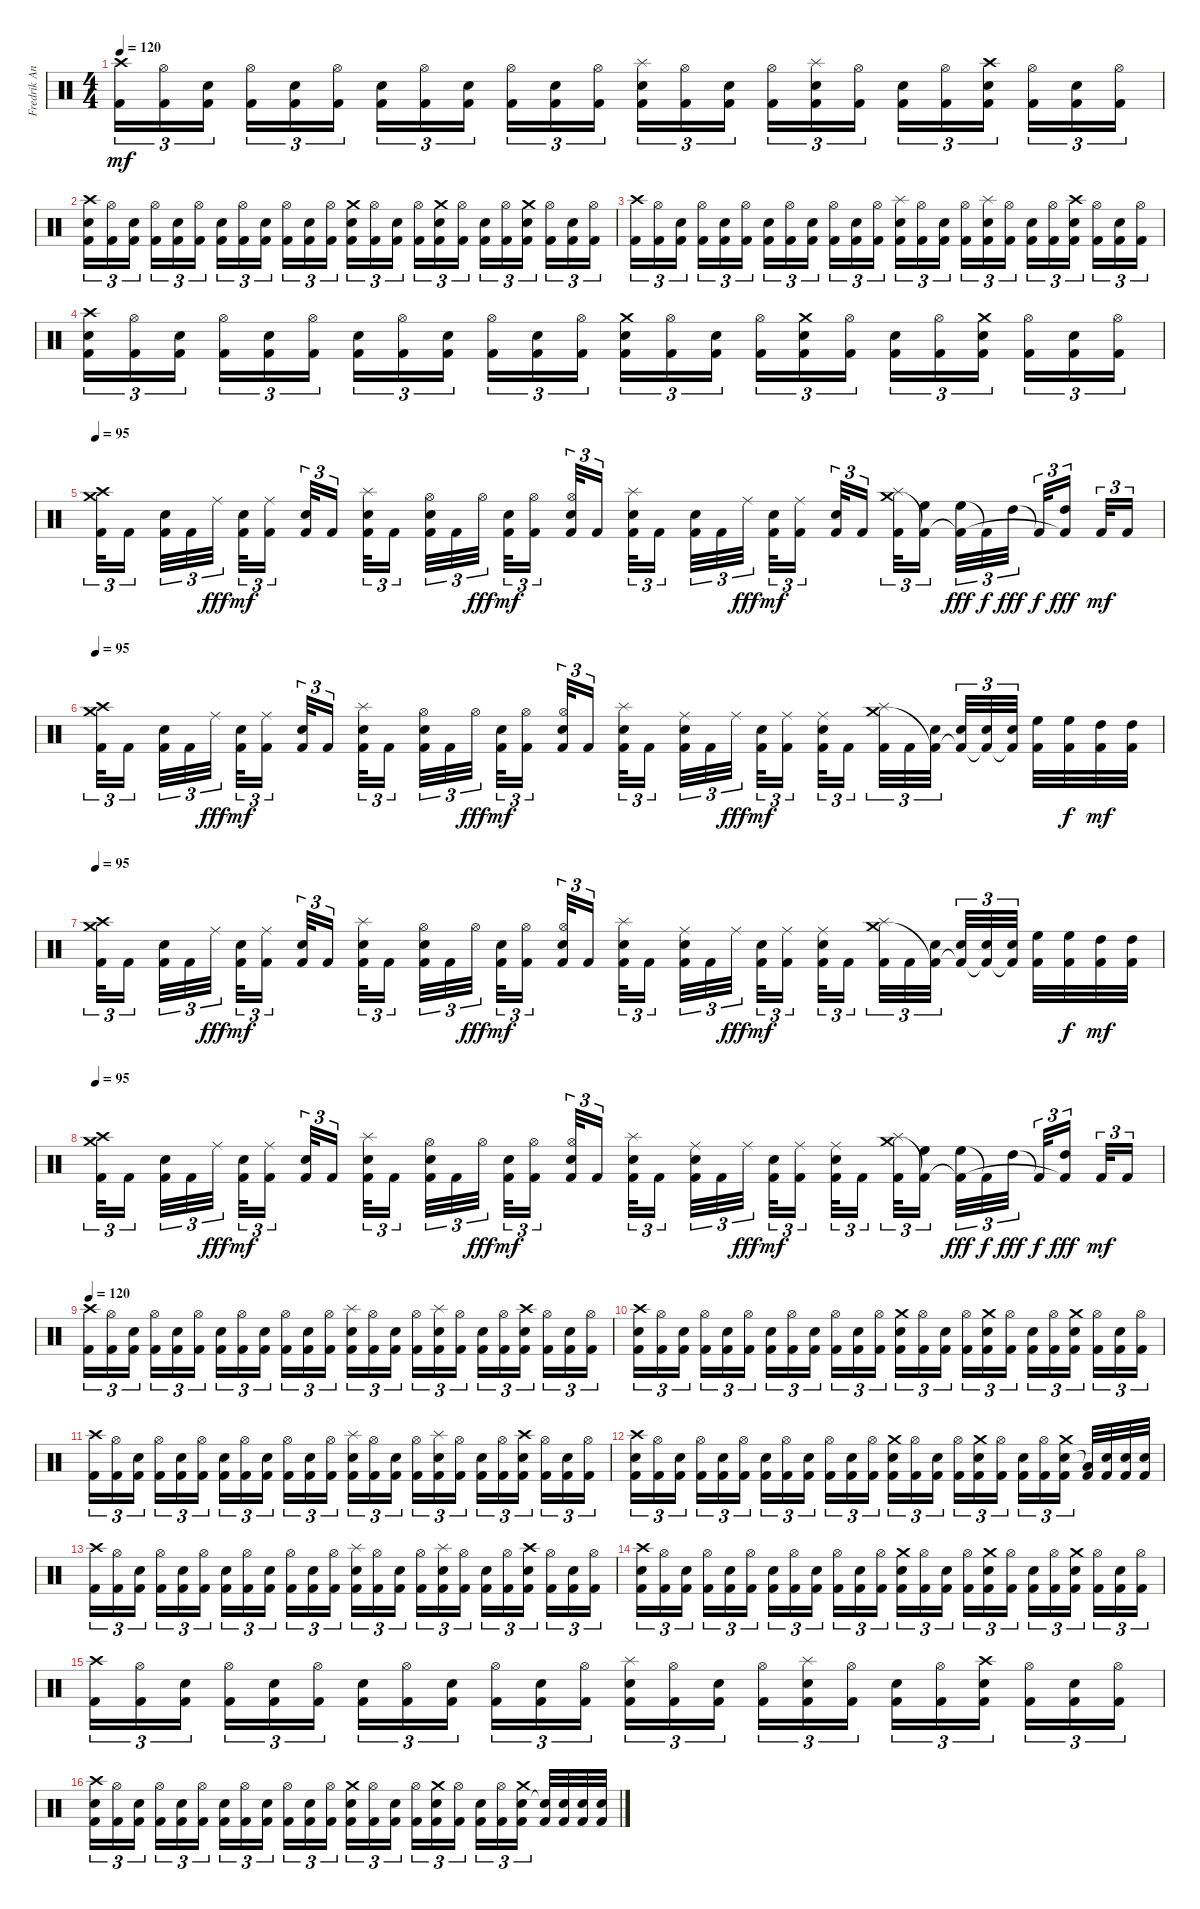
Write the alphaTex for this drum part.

\track ("Fredrik Andersson" "Fredrik An") {instrument percussion}
\staff {score}
\articulation defaults
\ts (4 4)
\tempo 120
\clef neutral
\ks c
("Crash high (hit)" "Kick (hit) 2").16{tu (3 2) dy mf} ("Hi-Hat (open)" "Kick (hit) 2").16{tu (3 2)} ("Snare (hit) 2" "Kick (hit) 2").16{tu (3 2) beam splitsecondary} ("Hi-Hat (open)" "Kick (hit) 2").16{tu (3 2)} ("Snare (hit) 2" "Kick (hit) 2").16{tu (3 2)} ("Hi-Hat (open)" "Kick (hit) 2").16{tu (3 2)} ("Snare (hit) 2" "Kick (hit) 2").16{tu (3 2)} ("Hi-Hat (open)" "Kick (hit) 2").16{tu (3 2)} ("Snare (hit) 2" "Kick (hit) 2").16{tu (3 2) beam splitsecondary} ("Hi-Hat (open)" "Kick (hit) 2").16{tu (3 2)} ("Snare (hit) 2" "Kick (hit) 2").16{tu (3 2)} ("Hi-Hat (open)" "Kick (hit) 2").16{tu (3 2)} ("Snare (hit) 2" "Splash (hit)" "Kick (hit) 2").16{tu (3 2)} ("Hi-Hat (open)" "Kick (hit) 2").16{tu (3 2)} ("Snare (hit) 2" "Kick (hit) 2").16{tu (3 2) beam splitsecondary} ("Hi-Hat (open)" "Kick (hit) 2").16{tu (3 2)} ("Snare (hit) 2" "Splash (hit)" "Kick (hit) 2").16{tu (3 2)} ("Hi-Hat (open)" "Kick (hit) 2").16{tu (3 2)} ("Snare (hit) 2" "Kick (hit) 2").16{tu (3 2)} ("Hi-Hat (open)" "Kick (hit) 2").16{tu (3 2)} ("Snare (hit) 2" "Crash high (hit)" "Kick (hit) 2").16{tu (3 2) beam splitsecondary} ("Hi-Hat (open)" "Kick (hit) 2").16{tu (3 2)} ("Snare (hit) 2" "Kick (hit) 2").16{tu (3 2)} ("Hi-Hat (open)" "Kick (hit) 2").16{tu (3 2)} |
("Snare (hit) 2" "Crash high (hit)" "Kick (hit) 2").16{tu (3 2)} ("Hi-Hat (open)" "Kick (hit) 2").16{tu (3 2)} ("Snare (hit) 2" "Kick (hit) 2").16{tu (3 2) beam splitsecondary} ("Hi-Hat (open)" "Kick (hit) 2").16{tu (3 2)} ("Snare (hit) 2" "Kick (hit) 2").16{tu (3 2)} ("Hi-Hat (open)" "Kick (hit) 2").16{tu (3 2)} ("Snare (hit) 2" "Kick (hit) 2").16{tu (3 2)} ("Hi-Hat (open)" "Kick (hit) 2").16{tu (3 2)} ("Snare (hit) 2" "Kick (hit) 2").16{tu (3 2) beam splitsecondary} ("Hi-Hat (open)" "Kick (hit) 2").16{tu (3 2)} ("Snare (hit) 2" "Kick (hit) 2").16{tu (3 2)} ("Hi-Hat (open)" "Kick (hit) 2").16{tu (3 2)} ("Snare (hit) 2" "Crash medium (hit)" "Kick (hit) 2").16{tu (3 2)} ("Hi-Hat (open)" "Kick (hit) 2").16{tu (3 2)} ("Snare (hit) 2" "Kick (hit) 2").16{tu (3 2) beam splitsecondary} ("Hi-Hat (open)" "Kick (hit) 2").16{tu (3 2)} ("Snare (hit) 2" "Crash medium (hit)" "Kick (hit) 2").16{tu (3 2)} ("Hi-Hat (open)" "Kick (hit) 2").16{tu (3 2)} ("Snare (hit) 2" "Kick (hit) 2").16{tu (3 2)} ("Hi-Hat (open)" "Kick (hit) 2").16{tu (3 2)} ("Snare (hit) 2" "Crash medium (hit)" "Kick (hit) 2").16{tu (3 2) beam splitsecondary} ("Hi-Hat (open)" "Kick (hit) 2").16{tu (3 2)} ("Snare (hit) 2" "Kick (hit) 2").16{tu (3 2)} ("Hi-Hat (open)" "Kick (hit) 2").16{tu (3 2)} |
("Crash high (hit)" "Kick (hit) 2").16{tu (3 2)} ("Hi-Hat (open)" "Kick (hit) 2").16{tu (3 2)} ("Snare (hit) 2" "Kick (hit) 2").16{tu (3 2) beam splitsecondary} ("Hi-Hat (open)" "Kick (hit) 2").16{tu (3 2)} ("Snare (hit) 2" "Kick (hit) 2").16{tu (3 2)} ("Hi-Hat (open)" "Kick (hit) 2").16{tu (3 2)} ("Snare (hit) 2" "Kick (hit) 2").16{tu (3 2)} ("Hi-Hat (open)" "Kick (hit) 2").16{tu (3 2)} ("Snare (hit) 2" "Kick (hit) 2").16{tu (3 2) beam splitsecondary} ("Hi-Hat (open)" "Kick (hit) 2").16{tu (3 2)} ("Snare (hit) 2" "Kick (hit) 2").16{tu (3 2)} ("Hi-Hat (open)" "Kick (hit) 2").16{tu (3 2)} ("Snare (hit) 2" "Splash (hit)" "Kick (hit) 2").16{tu (3 2)} ("Hi-Hat (open)" "Kick (hit) 2").16{tu (3 2)} ("Snare (hit) 2" "Kick (hit) 2").16{tu (3 2) beam splitsecondary} ("Hi-Hat (open)" "Kick (hit) 2").16{tu (3 2)} ("Snare (hit) 2" "Splash (hit)" "Kick (hit) 2").16{tu (3 2)} ("Hi-Hat (open)" "Kick (hit) 2").16{tu (3 2)} ("Snare (hit) 2" "Kick (hit) 2").16{tu (3 2)} ("Hi-Hat (open)" "Kick (hit) 2").16{tu (3 2)} ("Snare (hit) 2" "Crash high (hit)" "Kick (hit) 2").16{tu (3 2) beam splitsecondary} ("Hi-Hat (open)" "Kick (hit) 2").16{tu (3 2)} ("Snare (hit) 2" "Kick (hit) 2").16{tu (3 2)} ("Hi-Hat (open)" "Kick (hit) 2").16{tu (3 2)} |
("Snare (hit) 2" "Crash high (hit)" "Kick (hit) 2").16{tu (3 2)} ("Hi-Hat (open)" "Kick (hit) 2").16{tu (3 2)} ("Snare (hit) 2" "Kick (hit) 2").16{tu (3 2) beam splitsecondary} ("Hi-Hat (open)" "Kick (hit) 2").16{tu (3 2)} ("Snare (hit) 2" "Kick (hit) 2").16{tu (3 2)} ("Hi-Hat (open)" "Kick (hit) 2").16{tu (3 2)} ("Snare (hit) 2" "Kick (hit) 2").16{tu (3 2)} ("Hi-Hat (open)" "Kick (hit) 2").16{tu (3 2)} ("Snare (hit) 2" "Kick (hit) 2").16{tu (3 2) beam splitsecondary} ("Hi-Hat (open)" "Kick (hit) 2").16{tu (3 2)} ("Snare (hit) 2" "Kick (hit) 2").16{tu (3 2)} ("Hi-Hat (open)" "Kick (hit) 2").16{tu (3 2)} ("Snare (hit) 2" "Crash medium (hit)" "Kick (hit) 2").16{tu (3 2)} ("Hi-Hat (open)" "Kick (hit) 2").16{tu (3 2)} ("Snare (hit) 2" "Kick (hit) 2").16{tu (3 2) beam splitsecondary} ("Hi-Hat (open)" "Kick (hit) 2").16{tu (3 2)} ("Snare (hit) 2" "Crash medium (hit)" "Kick (hit) 2").16{tu (3 2)} ("Hi-Hat (open)" "Kick (hit) 2").16{tu (3 2)} ("Snare (hit) 2" "Kick (hit) 2").16{tu (3 2)} ("Hi-Hat (open)" "Kick (hit) 2").16{tu (3 2)} ("Snare (hit) 2" "Crash medium (hit)" "Kick (hit) 2").16{tu (3 2) beam splitsecondary} ("Hi-Hat (open)" "Kick (hit) 2").16{tu (3 2)} ("Snare (hit) 2" "Kick (hit) 2").16{tu (3 2)} ("Hi-Hat (open)" "Kick (hit) 2").16{tu (3 2)} |
\tempo 95
("Crash high (hit)" "Crash medium (hit)" "Kick (hit) 2").32{tu (3 2)} "Kick (hit) 2".16{tu (3 2) beam splitsecondary} ("Snare (hit) 2" "Kick (hit) 2").32{tu (3 2)} "Kick (hit) 2".32{tu (3 2)} "Ride (middle)".32{tu (3 2) dy fff beam splitsecondary} ("Snare (hit) 2" "Kick (hit) 2").32{tu (3 2) dy mf} ("Ride (middle)" "Kick (hit) 2").16{tu (3 2) beam splitsecondary} ("Snare (hit) 2" "Kick (hit) 2").32{tu (3 2)} "Kick (hit) 2".16{tu (3 2)} ("Snare (hit) 2" "Splash (hit)" "Kick (hit) 2").32{tu (3 2)} "Kick (hit) 2".16{tu (3 2) beam splitsecondary} ("Snare (hit) 2" "Hi-Hat (open)" "Kick (hit) 2").32{tu (3 2)} "Kick (hit) 2".32{tu (3 2)} "Hi-Hat (open)".32{tu (3 2) dy fff beam splitsecondary} ("Snare (hit) 2" "Kick (hit) 2").32{tu (3 2) dy mf} ("Hi-Hat (open)" "Kick (hit) 2").16{tu (3 2) beam splitsecondary} ("Snare (hit) 2" "Hi-Hat (open)" "Kick (hit) 2").32{tu (3 2)} "Kick (hit) 2".16{tu (3 2)} ("Snare (hit) 2" "Splash (hit)" "Kick (hit) 2").32{tu (3 2)} "Kick (hit) 2".16{tu (3 2) beam splitsecondary} ("Snare (hit) 2" "Kick (hit) 2").32{tu (3 2)} "Kick (hit) 2".32{tu (3 2)} "Ride (middle)".32{tu (3 2) dy fff beam splitsecondary} ("Snare (hit) 2" "Kick (hit) 2").32{tu (3 2) dy mf} ("Ride (middle)" "Kick (hit) 2").16{tu (3 2) beam splitsecondary} ("Snare (hit) 2" "Kick (hit) 2").32{tu (3 2)} "Kick (hit) 2".16{tu (3 2)} ("Splash (hit)" "Crash medium (hit)" "Kick (hit) 2").32{tu (3 2)} ("High Floor Tom (hit)" "Kick (hit) 2"{t}).16{tu (3 2) beam splitsecondary} ("High Floor Tom (hit)" "Kick (hit) 2"{t}).32{tu (3 2) dy fff} "Kick (hit) 2"{t}.32{tu (3 2) dy f} "High Tom (hit)".32{tu (3 2) dy fff beam splitsecondary} "Kick (hit) 2"{t}.32{tu (3 2) dy f} ("High Tom (hit)" "Kick (hit) 2"{t}).16{tu (3 2) dy fff beam splitsecondary} "Kick (hit) 2".32{tu (3 2) dy mf} "Kick (hit) 2".16{tu (3 2)} |
\tempo 95
("Crash high (hit)" "Crash medium (hit)" "Kick (hit) 2").32{tu (3 2)} "Kick (hit) 2".16{tu (3 2) beam splitsecondary} ("Snare (hit) 2" "Kick (hit) 2").32{tu (3 2)} "Kick (hit) 2".32{tu (3 2)} "Ride (middle)".32{tu (3 2) dy fff beam splitsecondary} ("Snare (hit) 2" "Kick (hit) 2").32{tu (3 2) dy mf} ("Ride (middle)" "Kick (hit) 2").16{tu (3 2) beam splitsecondary} ("Snare (hit) 2" "Kick (hit) 2").32{tu (3 2)} "Kick (hit) 2".16{tu (3 2)} ("Snare (hit) 2" "Splash (hit)" "Kick (hit) 2").32{tu (3 2)} "Kick (hit) 2".16{tu (3 2) beam splitsecondary} ("Snare (hit) 2" "Hi-Hat (open)" "Kick (hit) 2").32{tu (3 2)} "Kick (hit) 2".32{tu (3 2)} "Hi-Hat (open)".32{tu (3 2) dy fff beam splitsecondary} ("Snare (hit) 2" "Kick (hit) 2").32{tu (3 2) dy mf} ("Hi-Hat (open)" "Kick (hit) 2").16{tu (3 2) beam splitsecondary} ("Snare (hit) 2" "Hi-Hat (open)" "Kick (hit) 2").32{tu (3 2)} "Kick (hit) 2".16{tu (3 2)} ("Snare (hit) 2" "Splash (hit)" "Kick (hit) 2").32{tu (3 2)} "Kick (hit) 2".16{tu (3 2) beam splitsecondary} ("Snare (hit) 2" "Ride (middle)" "Kick (hit) 2").32{tu (3 2)} "Kick (hit) 2".32{tu (3 2)} "Ride (middle)".32{tu (3 2) dy fff beam splitsecondary} ("Snare (hit) 2" "Kick (hit) 2").32{tu (3 2) dy mf} ("Ride (middle)" "Kick (hit) 2").16{tu (3 2) beam splitsecondary} ("Snare (hit) 2" "Ride (middle)" "Kick (hit) 2").32{tu (3 2)} "Kick (hit) 2".16{tu (3 2)} ("Splash (hit)" "Crash medium (hit)" "Kick (hit) 2").32{tu (3 2)} "Kick (hit) 2".32{tu (3 2)} ("Snare (hit) 2" "Kick (hit) 2"{t}).32{tu (3 2) beam splitsecondary} ("Snare (hit) 2" "Kick (hit) 2"{t}).32{tu (3 2)} ("Snare (hit) 2" "Kick (hit) 2"{t}).32{tu (3 2)} ("Snare (hit) 2" "Kick (hit) 2"{t}).32{tu (3 2) beam splitsecondary} ("High Floor Tom (hit)" "Kick (hit) 2").32 ("High Floor Tom (hit)" "Kick (hit) 2").32{dy f} ("High Tom (hit)" "Kick (hit) 2").32{dy mf} ("High Tom (hit)" "Kick (hit) 2").32 |
\tempo 95
("Crash high (hit)" "Crash medium (hit)" "Kick (hit) 2").32{tu (3 2)} "Kick (hit) 2".16{tu (3 2) beam splitsecondary} ("Snare (hit) 2" "Kick (hit) 2").32{tu (3 2)} "Kick (hit) 2".32{tu (3 2)} "Ride (middle)".32{tu (3 2) dy fff beam splitsecondary} ("Snare (hit) 2" "Kick (hit) 2").32{tu (3 2) dy mf} ("Ride (middle)" "Kick (hit) 2").16{tu (3 2) beam splitsecondary} ("Snare (hit) 2" "Kick (hit) 2").32{tu (3 2)} "Kick (hit) 2".16{tu (3 2)} ("Snare (hit) 2" "Splash (hit)" "Kick (hit) 2").32{tu (3 2)} "Kick (hit) 2".16{tu (3 2) beam splitsecondary} ("Snare (hit) 2" "Hi-Hat (open)" "Kick (hit) 2").32{tu (3 2)} "Kick (hit) 2".32{tu (3 2)} "Hi-Hat (open)".32{tu (3 2) dy fff beam splitsecondary} ("Snare (hit) 2" "Kick (hit) 2").32{tu (3 2) dy mf} ("Hi-Hat (open)" "Kick (hit) 2").16{tu (3 2) beam splitsecondary} ("Snare (hit) 2" "Hi-Hat (open)" "Kick (hit) 2").32{tu (3 2)} "Kick (hit) 2".16{tu (3 2)} ("Snare (hit) 2" "Splash (hit)" "Kick (hit) 2").32{tu (3 2)} "Kick (hit) 2".16{tu (3 2) beam splitsecondary} ("Snare (hit) 2" "Ride (middle)" "Kick (hit) 2").32{tu (3 2)} "Kick (hit) 2".32{tu (3 2)} "Ride (middle)".32{tu (3 2) dy fff beam splitsecondary} ("Snare (hit) 2" "Kick (hit) 2").32{tu (3 2) dy mf} ("Ride (middle)" "Kick (hit) 2").16{tu (3 2) beam splitsecondary} ("Snare (hit) 2" "Ride (middle)" "Kick (hit) 2").32{tu (3 2)} "Kick (hit) 2".16{tu (3 2)} ("Splash (hit)" "Crash medium (hit)" "Kick (hit) 2").32{tu (3 2)} "Kick (hit) 2".32{tu (3 2)} ("Snare (hit) 2" "Kick (hit) 2"{t}).32{tu (3 2) beam splitsecondary} ("Snare (hit) 2" "Kick (hit) 2"{t}).32{tu (3 2)} ("Snare (hit) 2" "Kick (hit) 2"{t}).32{tu (3 2)} ("Snare (hit) 2" "Kick (hit) 2"{t}).32{tu (3 2) beam splitsecondary} ("High Floor Tom (hit)" "Kick (hit) 2").32 ("High Floor Tom (hit)" "Kick (hit) 2").32{dy f} ("High Tom (hit)" "Kick (hit) 2").32{dy mf} ("High Tom (hit)" "Kick (hit) 2").32 |
\tempo 95
("Crash medium (hit)" "Crash high (hit)" "Kick (hit) 2").32{tu (3 2)} "Kick (hit) 2".16{tu (3 2) beam splitsecondary} ("Snare (hit) 2" "Kick (hit) 2").32{tu (3 2)} "Kick (hit) 2".32{tu (3 2)} "Ride (middle)".32{tu (3 2) dy fff beam splitsecondary} ("Snare (hit) 2" "Kick (hit) 2").32{tu (3 2) dy mf} ("Ride (middle)" "Kick (hit) 2").16{tu (3 2) beam splitsecondary} ("Snare (hit) 2" "Kick (hit) 2").32{tu (3 2)} "Kick (hit) 2".16{tu (3 2)} ("Snare (hit) 2" "Splash (hit)" "Kick (hit) 2").32{tu (3 2)} "Kick (hit) 2".16{tu (3 2) beam splitsecondary} ("Snare (hit) 2" "Hi-Hat (open)" "Kick (hit) 2").32{tu (3 2)} "Kick (hit) 2".32{tu (3 2)} "Hi-Hat (open)".32{tu (3 2) dy fff beam splitsecondary} ("Snare (hit) 2" "Kick (hit) 2").32{tu (3 2) dy mf} ("Hi-Hat (open)" "Kick (hit) 2").16{tu (3 2) beam splitsecondary} ("Snare (hit) 2" "Hi-Hat (open)" "Kick (hit) 2").32{tu (3 2)} "Kick (hit) 2".16{tu (3 2)} ("Snare (hit) 2" "Splash (hit)" "Kick (hit) 2").32{tu (3 2)} "Kick (hit) 2".16{tu (3 2) beam splitsecondary} ("Snare (hit) 2" "Ride (middle)" "Kick (hit) 2").32{tu (3 2)} "Kick (hit) 2".32{tu (3 2)} "Ride (middle)".32{tu (3 2) dy fff beam splitsecondary} ("Snare (hit) 2" "Kick (hit) 2").32{tu (3 2) dy mf} ("Ride (middle)" "Kick (hit) 2").16{tu (3 2) beam splitsecondary} ("Snare (hit) 2" "Ride (middle)" "Kick (hit) 2").32{tu (3 2)} "Kick (hit) 2".16{tu (3 2)} ("Splash (hit)" "Crash medium (hit)" "Kick (hit) 2").32{tu (3 2)} ("High Floor Tom (hit)" "Kick (hit) 2"{t}).16{tu (3 2) beam splitsecondary} ("High Floor Tom (hit)" "Kick (hit) 2"{t}).32{tu (3 2) dy fff} "Kick (hit) 2"{t}.32{tu (3 2) dy f} "High Tom (hit)".32{tu (3 2) dy fff beam splitsecondary} "Kick (hit) 2"{t}.32{tu (3 2) dy f} ("High Tom (hit)" "Kick (hit) 2"{t}).16{tu (3 2) dy fff beam splitsecondary} "Kick (hit) 2".32{tu (3 2) dy mf} "Kick (hit) 2".16{tu (3 2)} |
\tempo 120
("Crash high (hit)" "Kick (hit) 2").16{tu (3 2)} ("Hi-Hat (open)" "Kick (hit) 2").16{tu (3 2)} ("Snare (hit) 2" "Kick (hit) 2").16{tu (3 2) beam splitsecondary} ("Hi-Hat (open)" "Kick (hit) 2").16{tu (3 2)} ("Snare (hit) 2" "Kick (hit) 2").16{tu (3 2)} ("Hi-Hat (open)" "Kick (hit) 2").16{tu (3 2)} ("Snare (hit) 2" "Kick (hit) 2").16{tu (3 2)} ("Hi-Hat (open)" "Kick (hit) 2").16{tu (3 2)} ("Snare (hit) 2" "Kick (hit) 2").16{tu (3 2) beam splitsecondary} ("Hi-Hat (open)" "Kick (hit) 2").16{tu (3 2)} ("Snare (hit) 2" "Kick (hit) 2").16{tu (3 2)} ("Hi-Hat (open)" "Kick (hit) 2").16{tu (3 2)} ("Snare (hit) 2" "Splash (hit)" "Kick (hit) 2").16{tu (3 2)} ("Hi-Hat (open)" "Kick (hit) 2").16{tu (3 2)} ("Snare (hit) 2" "Kick (hit) 2").16{tu (3 2) beam splitsecondary} ("Hi-Hat (open)" "Kick (hit) 2").16{tu (3 2)} ("Snare (hit) 2" "Splash (hit)" "Kick (hit) 2").16{tu (3 2)} ("Hi-Hat (open)" "Kick (hit) 2").16{tu (3 2)} ("Snare (hit) 2" "Kick (hit) 2").16{tu (3 2)} ("Hi-Hat (open)" "Kick (hit) 2").16{tu (3 2)} ("Snare (hit) 2" "Crash high (hit)" "Kick (hit) 2").16{tu (3 2) beam splitsecondary} ("Hi-Hat (open)" "Kick (hit) 2").16{tu (3 2)} ("Snare (hit) 2" "Kick (hit) 2").16{tu (3 2)} ("Hi-Hat (open)" "Kick (hit) 2").16{tu (3 2)} |
("Snare (hit) 2" "Crash high (hit)" "Kick (hit) 2").16{tu (3 2)} ("Hi-Hat (open)" "Kick (hit) 2").16{tu (3 2)} ("Snare (hit) 2" "Kick (hit) 2").16{tu (3 2) beam splitsecondary} ("Hi-Hat (open)" "Kick (hit) 2").16{tu (3 2)} ("Snare (hit) 2" "Kick (hit) 2").16{tu (3 2)} ("Hi-Hat (open)" "Kick (hit) 2").16{tu (3 2)} ("Snare (hit) 2" "Kick (hit) 2").16{tu (3 2)} ("Hi-Hat (open)" "Kick (hit) 2").16{tu (3 2)} ("Snare (hit) 2" "Kick (hit) 2").16{tu (3 2) beam splitsecondary} ("Hi-Hat (open)" "Kick (hit) 2").16{tu (3 2)} ("Snare (hit) 2" "Kick (hit) 2").16{tu (3 2)} ("Hi-Hat (open)" "Kick (hit) 2").16{tu (3 2)} ("Snare (hit) 2" "Crash medium (hit)" "Kick (hit) 2").16{tu (3 2)} ("Hi-Hat (open)" "Kick (hit) 2").16{tu (3 2)} ("Snare (hit) 2" "Kick (hit) 2").16{tu (3 2) beam splitsecondary} ("Hi-Hat (open)" "Kick (hit) 2").16{tu (3 2)} ("Snare (hit) 2" "Crash medium (hit)" "Kick (hit) 2").16{tu (3 2)} ("Hi-Hat (open)" "Kick (hit) 2").16{tu (3 2)} ("Snare (hit) 2" "Kick (hit) 2").16{tu (3 2)} ("Hi-Hat (open)" "Kick (hit) 2").16{tu (3 2)} ("Snare (hit) 2" "Crash medium (hit)" "Kick (hit) 2").16{tu (3 2) beam splitsecondary} ("Hi-Hat (open)" "Kick (hit) 2").16{tu (3 2)} ("Snare (hit) 2" "Kick (hit) 2").16{tu (3 2)} ("Hi-Hat (open)" "Kick (hit) 2").16{tu (3 2)} |
("Crash high (hit)" "Kick (hit) 2").16{tu (3 2)} ("Hi-Hat (open)" "Kick (hit) 2").16{tu (3 2)} ("Snare (hit) 2" "Kick (hit) 2").16{tu (3 2) beam splitsecondary} ("Hi-Hat (open)" "Kick (hit) 2").16{tu (3 2)} ("Snare (hit) 2" "Kick (hit) 2").16{tu (3 2)} ("Hi-Hat (open)" "Kick (hit) 2").16{tu (3 2)} ("Snare (hit) 2" "Kick (hit) 2").16{tu (3 2)} ("Hi-Hat (open)" "Kick (hit) 2").16{tu (3 2)} ("Snare (hit) 2" "Kick (hit) 2").16{tu (3 2) beam splitsecondary} ("Hi-Hat (open)" "Kick (hit) 2").16{tu (3 2)} ("Snare (hit) 2" "Kick (hit) 2").16{tu (3 2)} ("Hi-Hat (open)" "Kick (hit) 2").16{tu (3 2)} ("Snare (hit) 2" "Splash (hit)" "Kick (hit) 2").16{tu (3 2)} ("Hi-Hat (open)" "Kick (hit) 2").16{tu (3 2)} ("Snare (hit) 2" "Kick (hit) 2").16{tu (3 2) beam splitsecondary} ("Hi-Hat (open)" "Kick (hit) 2").16{tu (3 2)} ("Snare (hit) 2" "Splash (hit)" "Kick (hit) 2").16{tu (3 2)} ("Hi-Hat (open)" "Kick (hit) 2").16{tu (3 2)} ("Snare (hit) 2" "Kick (hit) 2").16{tu (3 2)} ("Hi-Hat (open)" "Kick (hit) 2").16{tu (3 2)} ("Snare (hit) 2" "Crash high (hit)" "Kick (hit) 2").16{tu (3 2) beam splitsecondary} ("Hi-Hat (open)" "Kick (hit) 2").16{tu (3 2)} ("Snare (hit) 2" "Kick (hit) 2").16{tu (3 2)} ("Hi-Hat (open)" "Kick (hit) 2").16{tu (3 2)} |
("Snare (hit) 2" "Crash high (hit)" "Kick (hit) 2").16{tu (3 2)} ("Hi-Hat (open)" "Kick (hit) 2").16{tu (3 2)} ("Snare (hit) 2" "Kick (hit) 2").16{tu (3 2) beam splitsecondary} ("Hi-Hat (open)" "Kick (hit) 2").16{tu (3 2)} ("Snare (hit) 2" "Kick (hit) 2").16{tu (3 2)} ("Hi-Hat (open)" "Kick (hit) 2").16{tu (3 2)} ("Snare (hit) 2" "Kick (hit) 2").16{tu (3 2)} ("Hi-Hat (open)" "Kick (hit) 2").16{tu (3 2)} ("Snare (hit) 2" "Kick (hit) 2").16{tu (3 2) beam splitsecondary} ("Hi-Hat (open)" "Kick (hit) 2").16{tu (3 2)} ("Snare (hit) 2" "Kick (hit) 2").16{tu (3 2)} ("Hi-Hat (open)" "Kick (hit) 2").16{tu (3 2)} ("Snare (hit) 2" "Crash medium (hit)" "Kick (hit) 2").16{tu (3 2)} ("Hi-Hat (open)" "Kick (hit) 2").16{tu (3 2)} ("Snare (hit) 2" "Kick (hit) 2").16{tu (3 2) beam splitsecondary} ("Hi-Hat (open)" "Kick (hit) 2").16{tu (3 2)} ("Snare (hit) 2" "Crash medium (hit)" "Kick (hit) 2").16{tu (3 2)} ("Hi-Hat (open)" "Kick (hit) 2").16{tu (3 2)} ("Snare (hit) 2" "Kick (hit) 2").16{tu (3 2)} ("Hi-Hat (open)" "Kick (hit) 2").16{tu (3 2)} ("Snare (hit) 2" "Crash medium (hit)" "Kick (hit) 2").16{tu (3 2) beam splitsecondary} ("Low Tom (hit)"{t} "Kick (hit) 2").32 ("Snare (hit) 2" "Kick (hit) 2").32 ("Snare (hit) 2" "Kick (hit) 2").32 ("Snare (hit) 2" "Kick (hit) 2").32 |
("Crash high (hit)" "Kick (hit) 2").16{tu (3 2)} ("Hi-Hat (open)" "Kick (hit) 2").16{tu (3 2)} ("Snare (hit) 2" "Kick (hit) 2").16{tu (3 2) beam splitsecondary} ("Hi-Hat (open)" "Kick (hit) 2").16{tu (3 2)} ("Snare (hit) 2" "Kick (hit) 2").16{tu (3 2)} ("Hi-Hat (open)" "Kick (hit) 2").16{tu (3 2)} ("Snare (hit) 2" "Kick (hit) 2").16{tu (3 2)} ("Hi-Hat (open)" "Kick (hit) 2").16{tu (3 2)} ("Snare (hit) 2" "Kick (hit) 2").16{tu (3 2) beam splitsecondary} ("Hi-Hat (open)" "Kick (hit) 2").16{tu (3 2)} ("Snare (hit) 2" "Kick (hit) 2").16{tu (3 2)} ("Hi-Hat (open)" "Kick (hit) 2").16{tu (3 2)} ("Snare (hit) 2" "Splash (hit)" "Kick (hit) 2").16{tu (3 2)} ("Hi-Hat (open)" "Kick (hit) 2").16{tu (3 2)} ("Snare (hit) 2" "Kick (hit) 2").16{tu (3 2) beam splitsecondary} ("Hi-Hat (open)" "Kick (hit) 2").16{tu (3 2)} ("Snare (hit) 2" "Splash (hit)" "Kick (hit) 2").16{tu (3 2)} ("Hi-Hat (open)" "Kick (hit) 2").16{tu (3 2)} ("Snare (hit) 2" "Kick (hit) 2").16{tu (3 2)} ("Hi-Hat (open)" "Kick (hit) 2").16{tu (3 2)} ("Snare (hit) 2" "Crash high (hit)" "Kick (hit) 2").16{tu (3 2) beam splitsecondary} ("Hi-Hat (open)" "Kick (hit) 2").16{tu (3 2)} ("Snare (hit) 2" "Kick (hit) 2").16{tu (3 2)} ("Hi-Hat (open)" "Kick (hit) 2").16{tu (3 2)} |
("Snare (hit) 2" "Crash high (hit)" "Kick (hit) 2").16{tu (3 2)} ("Hi-Hat (open)" "Kick (hit) 2").16{tu (3 2)} ("Snare (hit) 2" "Kick (hit) 2").16{tu (3 2) beam splitsecondary} ("Hi-Hat (open)" "Kick (hit) 2").16{tu (3 2)} ("Snare (hit) 2" "Kick (hit) 2").16{tu (3 2)} ("Hi-Hat (open)" "Kick (hit) 2").16{tu (3 2)} ("Snare (hit) 2" "Kick (hit) 2").16{tu (3 2)} ("Hi-Hat (open)" "Kick (hit) 2").16{tu (3 2)} ("Snare (hit) 2" "Kick (hit) 2").16{tu (3 2) beam splitsecondary} ("Hi-Hat (open)" "Kick (hit) 2").16{tu (3 2)} ("Snare (hit) 2" "Kick (hit) 2").16{tu (3 2)} ("Hi-Hat (open)" "Kick (hit) 2").16{tu (3 2)} ("Snare (hit) 2" "Crash medium (hit)" "Kick (hit) 2").16{tu (3 2)} ("Hi-Hat (open)" "Kick (hit) 2").16{tu (3 2)} ("Snare (hit) 2" "Kick (hit) 2").16{tu (3 2) beam splitsecondary} ("Hi-Hat (open)" "Kick (hit) 2").16{tu (3 2)} ("Snare (hit) 2" "Crash medium (hit)" "Kick (hit) 2").16{tu (3 2)} ("Hi-Hat (open)" "Kick (hit) 2").16{tu (3 2)} ("Snare (hit) 2" "Kick (hit) 2").16{tu (3 2)} ("Hi-Hat (open)" "Kick (hit) 2").16{tu (3 2)} ("Snare (hit) 2" "Crash medium (hit)" "Kick (hit) 2").16{tu (3 2) beam splitsecondary} ("Hi-Hat (open)" "Kick (hit) 2").16{tu (3 2)} ("Snare (hit) 2" "Kick (hit) 2").16{tu (3 2)} ("Hi-Hat (open)" "Kick (hit) 2").16{tu (3 2)} |
("Crash high (hit)" "Kick (hit) 2").16{tu (3 2)} ("Hi-Hat (open)" "Kick (hit) 2").16{tu (3 2)} ("Snare (hit) 2" "Kick (hit) 2").16{tu (3 2) beam splitsecondary} ("Hi-Hat (open)" "Kick (hit) 2").16{tu (3 2)} ("Snare (hit) 2" "Kick (hit) 2").16{tu (3 2)} ("Hi-Hat (open)" "Kick (hit) 2").16{tu (3 2)} ("Snare (hit) 2" "Kick (hit) 2").16{tu (3 2)} ("Hi-Hat (open)" "Kick (hit) 2").16{tu (3 2)} ("Snare (hit) 2" "Kick (hit) 2").16{tu (3 2) beam splitsecondary} ("Hi-Hat (open)" "Kick (hit) 2").16{tu (3 2)} ("Snare (hit) 2" "Kick (hit) 2").16{tu (3 2)} ("Hi-Hat (open)" "Kick (hit) 2").16{tu (3 2)} ("Snare (hit) 2" "Splash (hit)" "Kick (hit) 2").16{tu (3 2)} ("Hi-Hat (open)" "Kick (hit) 2").16{tu (3 2)} ("Snare (hit) 2" "Kick (hit) 2").16{tu (3 2) beam splitsecondary} ("Hi-Hat (open)" "Kick (hit) 2").16{tu (3 2)} ("Snare (hit) 2" "Splash (hit)" "Kick (hit) 2").16{tu (3 2)} ("Hi-Hat (open)" "Kick (hit) 2").16{tu (3 2)} ("Snare (hit) 2" "Kick (hit) 2").16{tu (3 2)} ("Hi-Hat (open)" "Kick (hit) 2").16{tu (3 2)} ("Snare (hit) 2" "Crash high (hit)" "Kick (hit) 2").16{tu (3 2) beam splitsecondary} ("Hi-Hat (open)" "Kick (hit) 2").16{tu (3 2)} ("Snare (hit) 2" "Kick (hit) 2").16{tu (3 2)} ("Hi-Hat (open)" "Kick (hit) 2").16{tu (3 2)} |
("Snare (hit) 2" "Crash high (hit)" "Kick (hit) 2").16{tu (3 2)} ("Hi-Hat (open)" "Kick (hit) 2").16{tu (3 2)} ("Snare (hit) 2" "Kick (hit) 2").16{tu (3 2) beam splitsecondary} ("Hi-Hat (open)" "Kick (hit) 2").16{tu (3 2)} ("Snare (hit) 2" "Kick (hit) 2").16{tu (3 2)} ("Hi-Hat (open)" "Kick (hit) 2").16{tu (3 2)} ("Snare (hit) 2" "Kick (hit) 2").16{tu (3 2)} ("Hi-Hat (open)" "Kick (hit) 2").16{tu (3 2)} ("Snare (hit) 2" "Kick (hit) 2").16{tu (3 2) beam splitsecondary} ("Hi-Hat (open)" "Kick (hit) 2").16{tu (3 2)} ("Snare (hit) 2" "Kick (hit) 2").16{tu (3 2)} ("Hi-Hat (open)" "Kick (hit) 2").16{tu (3 2)} ("Snare (hit) 2" "Crash medium (hit)" "Kick (hit) 2").16{tu (3 2)} ("Hi-Hat (open)" "Kick (hit) 2").16{tu (3 2)} ("Snare (hit) 2" "Kick (hit) 2").16{tu (3 2) beam splitsecondary} ("Hi-Hat (open)" "Kick (hit) 2").16{tu (3 2)} ("Snare (hit) 2" "Crash medium (hit)" "Kick (hit) 2").16{tu (3 2)} ("Hi-Hat (open)" "Kick (hit) 2").16{tu (3 2)} ("Snare (hit) 2" "Kick (hit) 2").16{tu (3 2)} ("Hi-Hat (open)" "Kick (hit) 2").16{tu (3 2)} ("Snare (hit) 2" "Crash medium (hit)" "Kick (hit) 2").16{tu (3 2) beam splitsecondary} ("Snare (hit) 2"{t} "Kick (hit) 2").32 ("Snare (hit) 2" "Kick (hit) 2").32 ("Snare (hit) 2" "Kick (hit) 2").32 ("Snare (hit) 2" "Kick (hit) 2").32
